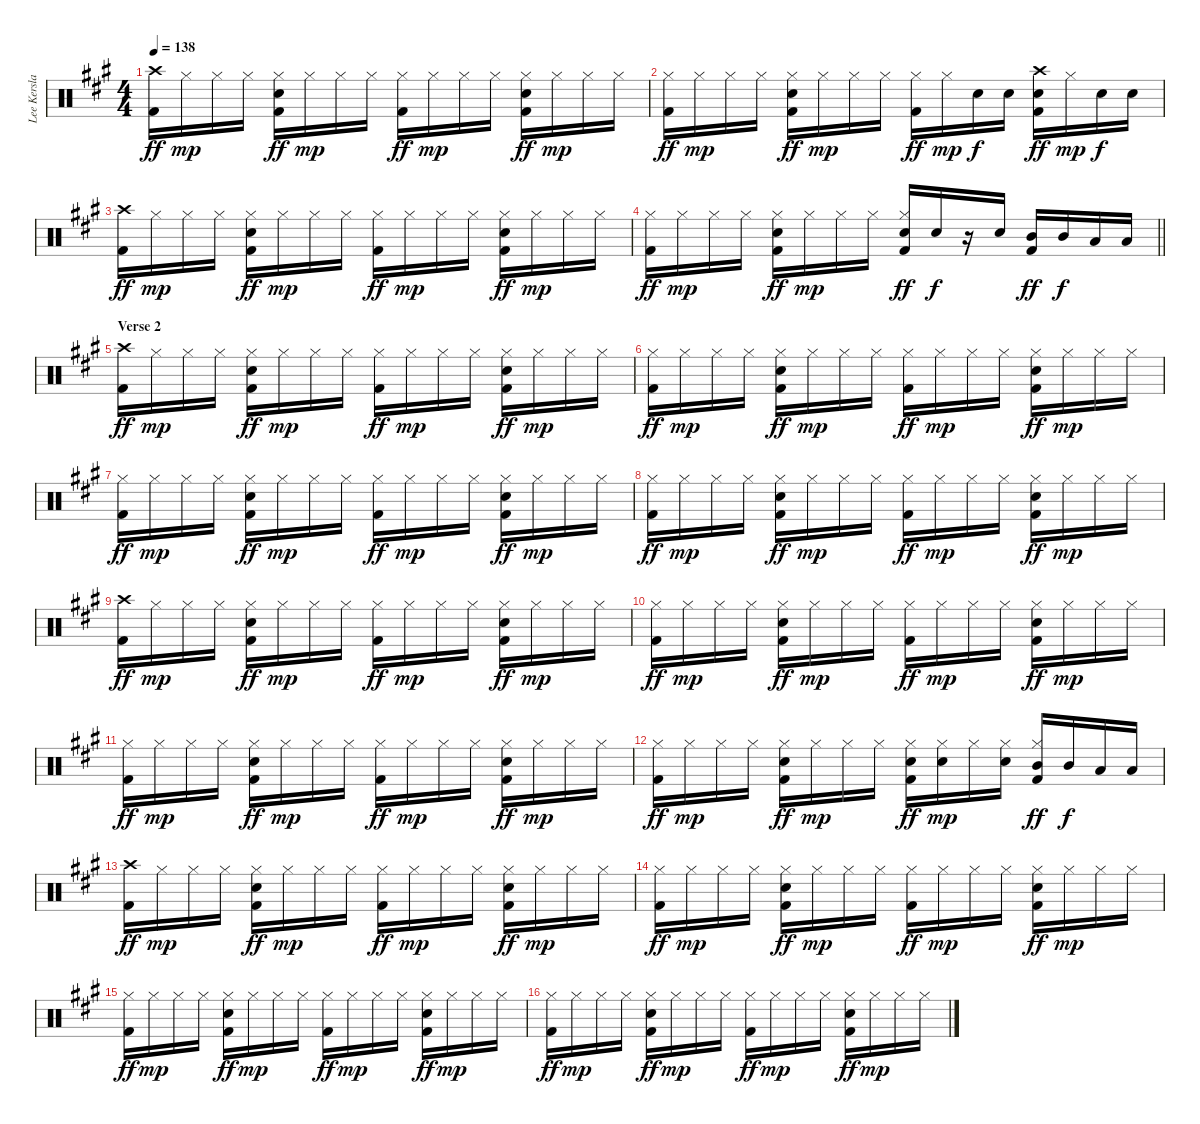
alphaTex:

\track ("Lee Kerslake" "Lee Kersla") {instrument percussion}
\staff {score}
\articulation defaults
\ts (4 4)
\tempo 138
\clef neutral
\ks a
("Crash high (hit)" "Kick (hit) 2").16{dy ff} "Hi-Hat (closed)".16{dy mp} "Hi-Hat (closed)".16 "Hi-Hat (closed)".16 ("Hi-Hat (closed)" "Snare (hit) 2" "Kick (hit) 2").16{dy ff} "Hi-Hat (closed)".16{dy mp} "Hi-Hat (closed)".16 "Hi-Hat (closed)".16 ("Hi-Hat (closed)" "Kick (hit) 2").16{dy ff} "Hi-Hat (closed)".16{dy mp} "Hi-Hat (closed)".16 "Hi-Hat (closed)".16 ("Hi-Hat (closed)" "Snare (hit) 2" "Kick (hit) 2").16{dy ff} "Hi-Hat (closed)".16{dy mp} "Hi-Hat (closed)".16 "Hi-Hat (closed)".16 |
("Hi-Hat (closed)" "Kick (hit) 2").16{dy ff} "Hi-Hat (closed)".16{dy mp} "Hi-Hat (closed)".16 "Hi-Hat (closed)".16 ("Hi-Hat (closed)" "Snare (hit) 2" "Kick (hit) 2").16{dy ff} "Hi-Hat (closed)".16{dy mp} "Hi-Hat (closed)".16 "Hi-Hat (closed)".16 ("Hi-Hat (closed)" "Kick (hit) 2").16{dy ff} "Hi-Hat (closed)".16{dy mp} "Snare (hit) 2".16{dy f} "Snare (hit) 2".16 ("Crash high (hit)" "Snare (hit) 2" "Kick (hit) 2").16{dy ff} "Hi-Hat (closed)".16{dy mp} "Snare (hit) 2".16{dy f} "Snare (hit) 2".16 |
("Crash high (hit)" "Kick (hit) 2").16{dy ff} "Hi-Hat (closed)".16{dy mp} "Hi-Hat (closed)".16 "Hi-Hat (closed)".16 ("Hi-Hat (closed)" "Snare (hit) 2" "Kick (hit) 2").16{dy ff} "Hi-Hat (closed)".16{dy mp} "Hi-Hat (closed)".16 "Hi-Hat (closed)".16 ("Hi-Hat (closed)" "Kick (hit) 2").16{dy ff} "Hi-Hat (closed)".16{dy mp} "Hi-Hat (closed)".16 "Hi-Hat (closed)".16 ("Hi-Hat (closed)" "Snare (hit) 2" "Kick (hit) 2").16{dy ff} "Hi-Hat (closed)".16{dy mp} "Hi-Hat (closed)".16 "Hi-Hat (closed)".16 |
\barLineRight lightlight
("Hi-Hat (closed)" "Kick (hit) 2").16{dy ff} "Hi-Hat (closed)".16{dy mp} "Hi-Hat (closed)".16 "Hi-Hat (closed)".16 ("Hi-Hat (closed)" "Snare (hit) 2" "Kick (hit) 2").16{dy ff} "Hi-Hat (closed)".16{dy mp} "Hi-Hat (closed)".16 "Hi-Hat (closed)".16 ("Hi-Hat (closed)" "Snare (hit) 2" "Kick (hit) 2").16{dy ff} "Snare (hit) 2".16{dy f} r.16 "Snare (hit) 2".16 ("Mid Tom (hit)" "Kick (hit) 2").16{dy ff} "Mid Tom (hit)".16{dy f} "Low Tom (hit)".16 "Low Tom (hit)".16 |
\section ("" "Verse 2")
("Crash high (hit)" "Kick (hit) 2").16{dy ff} "Hi-Hat (closed)".16{dy mp} "Hi-Hat (closed)".16 "Hi-Hat (closed)".16 ("Hi-Hat (closed)" "Snare (hit) 2" "Kick (hit) 2").16{dy ff} "Hi-Hat (closed)".16{dy mp} "Hi-Hat (closed)".16 "Hi-Hat (closed)".16 ("Hi-Hat (closed)" "Kick (hit) 2").16{dy ff} "Hi-Hat (closed)".16{dy mp} "Hi-Hat (closed)".16 "Hi-Hat (closed)".16 ("Hi-Hat (closed)" "Snare (hit) 2" "Kick (hit) 2").16{dy ff} "Hi-Hat (closed)".16{dy mp} "Hi-Hat (closed)".16 "Hi-Hat (closed)".16 |
("Hi-Hat (closed)" "Kick (hit) 2").16{dy ff} "Hi-Hat (closed)".16{dy mp} "Hi-Hat (closed)".16 "Hi-Hat (closed)".16 ("Hi-Hat (closed)" "Snare (hit) 2" "Kick (hit) 2").16{dy ff} "Hi-Hat (closed)".16{dy mp} "Hi-Hat (closed)".16 "Hi-Hat (closed)".16 ("Hi-Hat (closed)" "Kick (hit) 2").16{dy ff} "Hi-Hat (closed)".16{dy mp} "Hi-Hat (closed)".16 "Hi-Hat (closed)".16 ("Hi-Hat (closed)" "Snare (hit) 2" "Kick (hit) 2").16{dy ff} "Hi-Hat (closed)".16{dy mp} "Hi-Hat (closed)".16 "Hi-Hat (closed)".16 |
("Hi-Hat (closed)" "Kick (hit) 2").16{dy ff} "Hi-Hat (closed)".16{dy mp} "Hi-Hat (closed)".16 "Hi-Hat (closed)".16 ("Hi-Hat (closed)" "Snare (hit) 2" "Kick (hit) 2").16{dy ff} "Hi-Hat (closed)".16{dy mp} "Hi-Hat (closed)".16 "Hi-Hat (closed)".16 ("Hi-Hat (closed)" "Kick (hit) 2").16{dy ff} "Hi-Hat (closed)".16{dy mp} "Hi-Hat (closed)".16 "Hi-Hat (closed)".16 ("Hi-Hat (closed)" "Snare (hit) 2" "Kick (hit) 2").16{dy ff} "Hi-Hat (closed)".16{dy mp} "Hi-Hat (closed)".16 "Hi-Hat (closed)".16 |
("Hi-Hat (closed)" "Kick (hit) 2").16{dy ff} "Hi-Hat (closed)".16{dy mp} "Hi-Hat (closed)".16 "Hi-Hat (closed)".16 ("Hi-Hat (closed)" "Snare (hit) 2" "Kick (hit) 2").16{dy ff} "Hi-Hat (closed)".16{dy mp} "Hi-Hat (closed)".16 "Hi-Hat (closed)".16 ("Hi-Hat (closed)" "Kick (hit) 2").16{dy ff} "Hi-Hat (closed)".16{dy mp} "Hi-Hat (closed)".16 "Hi-Hat (closed)".16 ("Hi-Hat (closed)" "Snare (hit) 2" "Kick (hit) 2").16{dy ff} "Hi-Hat (closed)".16{dy mp} "Hi-Hat (closed)".16 "Hi-Hat (closed)".16 |
("Crash high (hit)" "Kick (hit) 2").16{dy ff} "Hi-Hat (closed)".16{dy mp} "Hi-Hat (closed)".16 "Hi-Hat (closed)".16 ("Hi-Hat (closed)" "Snare (hit) 2" "Kick (hit) 2").16{dy ff} "Hi-Hat (closed)".16{dy mp} "Hi-Hat (closed)".16 "Hi-Hat (closed)".16 ("Hi-Hat (closed)" "Kick (hit) 2").16{dy ff} "Hi-Hat (closed)".16{dy mp} "Hi-Hat (closed)".16 "Hi-Hat (closed)".16 ("Hi-Hat (closed)" "Snare (hit) 2" "Kick (hit) 2").16{dy ff} "Hi-Hat (closed)".16{dy mp} "Hi-Hat (closed)".16 "Hi-Hat (closed)".16 |
("Hi-Hat (closed)" "Kick (hit) 2").16{dy ff} "Hi-Hat (closed)".16{dy mp} "Hi-Hat (closed)".16 "Hi-Hat (closed)".16 ("Hi-Hat (closed)" "Snare (hit) 2" "Kick (hit) 2").16{dy ff} "Hi-Hat (closed)".16{dy mp} "Hi-Hat (closed)".16 "Hi-Hat (closed)".16 ("Hi-Hat (closed)" "Kick (hit) 2").16{dy ff} "Hi-Hat (closed)".16{dy mp} "Hi-Hat (closed)".16 "Hi-Hat (closed)".16 ("Hi-Hat (closed)" "Snare (hit) 2" "Kick (hit) 2").16{dy ff} "Hi-Hat (closed)".16{dy mp} "Hi-Hat (closed)".16 "Hi-Hat (closed)".16 |
("Hi-Hat (closed)" "Kick (hit) 2").16{dy ff} "Hi-Hat (closed)".16{dy mp} "Hi-Hat (closed)".16 "Hi-Hat (closed)".16 ("Hi-Hat (closed)" "Snare (hit) 2" "Kick (hit) 2").16{dy ff} "Hi-Hat (closed)".16{dy mp} "Hi-Hat (closed)".16 "Hi-Hat (closed)".16 ("Hi-Hat (closed)" "Kick (hit) 2").16{dy ff} "Hi-Hat (closed)".16{dy mp} "Hi-Hat (closed)".16 "Hi-Hat (closed)".16 ("Hi-Hat (closed)" "Snare (hit) 2" "Kick (hit) 2").16{dy ff} "Hi-Hat (closed)".16{dy mp} "Hi-Hat (closed)".16 "Hi-Hat (closed)".16 |
("Hi-Hat (closed)" "Kick (hit) 2").16{dy ff} "Hi-Hat (closed)".16{dy mp} "Hi-Hat (closed)".16 "Hi-Hat (closed)".16 ("Hi-Hat (closed)" "Snare (hit) 2" "Kick (hit) 2").16{dy ff} "Hi-Hat (closed)".16{dy mp} "Hi-Hat (closed)".16 "Hi-Hat (closed)".16 ("Hi-Hat (closed)" "Snare (hit) 2" "Kick (hit) 2").16{dy ff} ("Hi-Hat (closed)" "Snare (hit) 2").16{dy mp} "Hi-Hat (closed)".16 ("Hi-Hat (closed)" "Snare (hit) 2").16 ("Hi-Hat (closed)" "Mid Tom (hit)" "Kick (hit) 2").16{dy ff} "Mid Tom (hit)".16{dy f} "Low Tom (hit)".16 "Low Tom (hit)".16 |
("Crash high (hit)" "Kick (hit) 2").16{dy ff} "Hi-Hat (closed)".16{dy mp} "Hi-Hat (closed)".16 "Hi-Hat (closed)".16 ("Hi-Hat (closed)" "Snare (hit) 2" "Kick (hit) 2").16{dy ff} "Hi-Hat (closed)".16{dy mp} "Hi-Hat (closed)".16 "Hi-Hat (closed)".16 ("Hi-Hat (closed)" "Kick (hit) 2").16{dy ff} "Hi-Hat (closed)".16{dy mp} "Hi-Hat (closed)".16 "Hi-Hat (closed)".16 ("Hi-Hat (closed)" "Snare (hit) 2" "Kick (hit) 2").16{dy ff} "Hi-Hat (closed)".16{dy mp} "Hi-Hat (closed)".16 "Hi-Hat (closed)".16 |
("Hi-Hat (closed)" "Kick (hit) 2").16{dy ff} "Hi-Hat (closed)".16{dy mp} "Hi-Hat (closed)".16 "Hi-Hat (closed)".16 ("Hi-Hat (closed)" "Snare (hit) 2" "Kick (hit) 2").16{dy ff} "Hi-Hat (closed)".16{dy mp} "Hi-Hat (closed)".16 "Hi-Hat (closed)".16 ("Hi-Hat (closed)" "Kick (hit) 2").16{dy ff} "Hi-Hat (closed)".16{dy mp} "Hi-Hat (closed)".16 "Hi-Hat (closed)".16 ("Hi-Hat (closed)" "Snare (hit) 2" "Kick (hit) 2").16{dy ff} "Hi-Hat (closed)".16{dy mp} "Hi-Hat (closed)".16 "Hi-Hat (closed)".16 |
("Hi-Hat (closed)" "Kick (hit) 2").16{dy ff} "Hi-Hat (closed)".16{dy mp} "Hi-Hat (closed)".16 "Hi-Hat (closed)".16 ("Hi-Hat (closed)" "Snare (hit) 2" "Kick (hit) 2").16{dy ff} "Hi-Hat (closed)".16{dy mp} "Hi-Hat (closed)".16 "Hi-Hat (closed)".16 ("Hi-Hat (closed)" "Kick (hit) 2").16{dy ff} "Hi-Hat (closed)".16{dy mp} "Hi-Hat (closed)".16 "Hi-Hat (closed)".16 ("Hi-Hat (closed)" "Snare (hit) 2" "Kick (hit) 2").16{dy ff} "Hi-Hat (closed)".16{dy mp} "Hi-Hat (closed)".16 "Hi-Hat (closed)".16 |
("Hi-Hat (closed)" "Kick (hit) 2").16{dy ff} "Hi-Hat (closed)".16{dy mp} "Hi-Hat (closed)".16 "Hi-Hat (closed)".16 ("Hi-Hat (closed)" "Snare (hit) 2" "Kick (hit) 2").16{dy ff} "Hi-Hat (closed)".16{dy mp} "Hi-Hat (closed)".16 "Hi-Hat (closed)".16 ("Hi-Hat (closed)" "Kick (hit) 2").16{dy ff} "Hi-Hat (closed)".16{dy mp} "Hi-Hat (closed)".16 "Hi-Hat (closed)".16 ("Hi-Hat (closed)" "Snare (hit) 2" "Kick (hit) 2").16{dy ff} "Hi-Hat (closed)".16{dy mp} "Hi-Hat (closed)".16 "Hi-Hat (closed)".16
